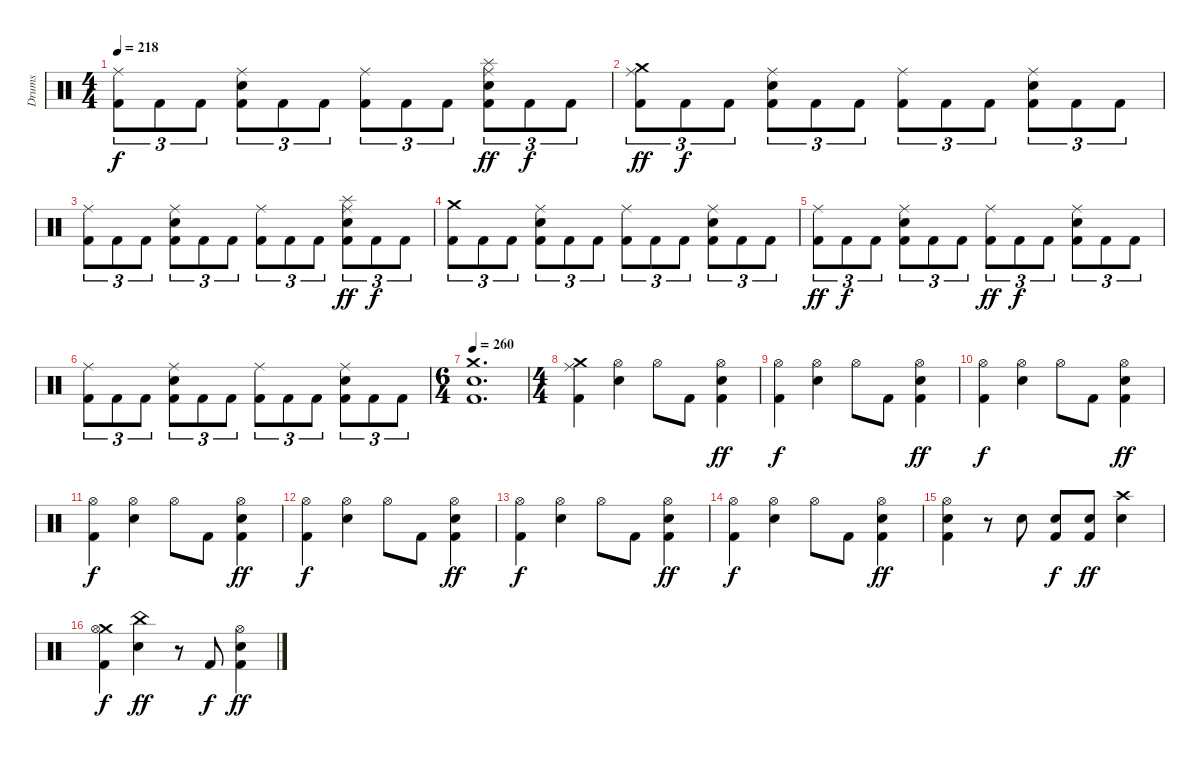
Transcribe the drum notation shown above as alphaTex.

\track ("Drums" "Drums") {instrument percussion}
\staff {score}
\articulation defaults
\ts (4 4)
\tempo 218
\clef neutral
\ks c
("Ride (middle)" "Kick (hit) 2").8{tu (3 2) dy f} "Kick (hit) 2".8{tu (3 2)} "Kick (hit) 2".8{tu (3 2)} ("Ride (middle)" "Electric Snare (hit)" "Kick (hit) 2").8{tu (3 2)} "Kick (hit) 2".8{tu (3 2)} "Kick (hit) 2".8{tu (3 2)} ("Ride (middle)" "Kick (hit) 2").8{tu (3 2)} "Kick (hit) 2".8{tu (3 2)} "Kick (hit) 2".8{tu (3 2)} ("Splash (hit)" "Ride (middle)" "Electric Snare (hit)" "Kick (hit) 2").8{tu (3 2) dy ff} "Kick (hit) 2".8{tu (3 2) dy f} "Kick (hit) 2".8{tu (3 2)} |
("Crash medium (hit)" "Ride (middle)" "Kick (hit) 2").8{tu (3 2) dy ff} "Kick (hit) 2".8{tu (3 2) dy f} "Kick (hit) 2".8{tu (3 2)} ("Ride (middle)" "Electric Snare (hit)" "Kick (hit) 2").8{tu (3 2)} "Kick (hit) 2".8{tu (3 2)} "Kick (hit) 2".8{tu (3 2)} ("Ride (middle)" "Kick (hit) 2").8{tu (3 2)} "Kick (hit) 2".8{tu (3 2)} "Kick (hit) 2".8{tu (3 2)} ("Ride (middle)" "Electric Snare (hit)" "Kick (hit) 2").8{tu (3 2)} "Kick (hit) 2".8{tu (3 2)} "Kick (hit) 2".8{tu (3 2)} |
("Ride (middle)" "Kick (hit) 2").8{tu (3 2)} "Kick (hit) 2".8{tu (3 2)} "Kick (hit) 2".8{tu (3 2)} ("Ride (middle)" "Electric Snare (hit)" "Kick (hit) 2").8{tu (3 2)} "Kick (hit) 2".8{tu (3 2)} "Kick (hit) 2".8{tu (3 2)} ("Ride (middle)" "Kick (hit) 2").8{tu (3 2)} "Kick (hit) 2".8{tu (3 2)} "Kick (hit) 2".8{tu (3 2)} ("Splash (hit)" "Ride (middle)" "Electric Snare (hit)" "Kick (hit) 2").8{tu (3 2) dy ff} "Kick (hit) 2".8{tu (3 2) dy f} "Kick (hit) 2".8{tu (3 2)} |
("Crash medium (hit)" "Kick (hit) 2").8{tu (3 2)} "Kick (hit) 2".8{tu (3 2)} "Kick (hit) 2".8{tu (3 2)} ("Ride (middle)" "Electric Snare (hit)" "Kick (hit) 2").8{tu (3 2)} "Kick (hit) 2".8{tu (3 2)} "Kick (hit) 2".8{tu (3 2)} ("Ride (middle)" "Kick (hit) 2").8{tu (3 2)} "Kick (hit) 2".8{tu (3 2)} "Kick (hit) 2".8{tu (3 2)} ("Ride (middle)" "Electric Snare (hit)" "Kick (hit) 2").8{tu (3 2)} "Kick (hit) 2".8{tu (3 2)} "Kick (hit) 2".8{tu (3 2)} |
("Ride (middle)" "Kick (hit) 2").8{tu (3 2) dy ff} "Kick (hit) 2".8{tu (3 2) dy f} "Kick (hit) 2".8{tu (3 2)} ("Ride (middle)" "Electric Snare (hit)" "Kick (hit) 2").8{tu (3 2)} "Kick (hit) 2".8{tu (3 2)} "Kick (hit) 2".8{tu (3 2)} ("Ride (middle)" "Kick (hit) 2").8{tu (3 2) dy ff} "Kick (hit) 2".8{tu (3 2) dy f} "Kick (hit) 2".8{tu (3 2)} ("Ride (middle)" "Electric Snare (hit)" "Kick (hit) 2").8{tu (3 2)} "Kick (hit) 2".8{tu (3 2)} "Kick (hit) 2".8{tu (3 2)} |
("Ride (middle)" "Kick (hit) 2").8{tu (3 2)} "Kick (hit) 2".8{tu (3 2)} "Kick (hit) 2".8{tu (3 2)} ("Ride (middle)" "Electric Snare (hit)" "Kick (hit) 2").8{tu (3 2)} "Kick (hit) 2".8{tu (3 2)} "Kick (hit) 2".8{tu (3 2)} ("Ride (middle)" "Kick (hit) 2").8{tu (3 2)} "Kick (hit) 2".8{tu (3 2)} "Kick (hit) 2".8{tu (3 2)} ("Ride (middle)" "Electric Snare (hit)" "Kick (hit) 2").8{tu (3 2)} "Kick (hit) 2".8{tu (3 2)} "Kick (hit) 2".8{tu (3 2)} |
\ts (6 4)
\tempo 260
("Crash medium (hit)" "Electric Snare (hit)" "Kick (hit) 2").1{d} |
\ts (4 4)
("Crash medium (hit)" "Ride (middle)" "Kick (hit) 2").4 ("Hi-Hat (open)" "Electric Snare (hit)").4 "Hi-Hat (open)".8 "Kick (hit) 2".8 ("Hi-Hat (open)" "Electric Snare (hit)" "Kick (hit) 2").4{dy ff} |
("Hi-Hat (open)" "Kick (hit) 2").4{dy f} ("Hi-Hat (open)" "Electric Snare (hit)").4 "Hi-Hat (open)".8 "Kick (hit) 2".8 ("Hi-Hat (open)" "Electric Snare (hit)" "Kick (hit) 2").4{dy ff} |
("Hi-Hat (open)" "Kick (hit) 2").4{dy f} ("Hi-Hat (open)" "Electric Snare (hit)").4 "Hi-Hat (open)".8 "Kick (hit) 2".8 ("Hi-Hat (open)" "Electric Snare (hit)" "Kick (hit) 2").4{dy ff} |
("Hi-Hat (open)" "Kick (hit) 2").4{dy f} ("Hi-Hat (open)" "Electric Snare (hit)").4 "Hi-Hat (open)".8 "Kick (hit) 2".8 ("Hi-Hat (open)" "Electric Snare (hit)" "Kick (hit) 2").4{dy ff} |
("Hi-Hat (open)" "Kick (hit) 2").4{dy f} ("Hi-Hat (open)" "Electric Snare (hit)").4 "Hi-Hat (open)".8 "Kick (hit) 2".8 ("Hi-Hat (open)" "Electric Snare (hit)" "Kick (hit) 2").4{dy ff} |
("Hi-Hat (open)" "Kick (hit) 2").4{dy f} ("Hi-Hat (open)" "Electric Snare (hit)").4 "Hi-Hat (open)".8 "Kick (hit) 2".8 ("Hi-Hat (open)" "Electric Snare (hit)" "Kick (hit) 2").4{dy ff} |
("Hi-Hat (open)" "Kick (hit) 2").4{dy f} ("Hi-Hat (open)" "Electric Snare (hit)").4 "Hi-Hat (open)".8 "Kick (hit) 2".8 ("Hi-Hat (open)" "Electric Snare (hit)" "Kick (hit) 2").4{dy ff} |
("Electric Snare (hit)" "Hi-Hat (open)" "Kick (hit) 2").4 r.8 "Electric Snare (hit)".8 ("Electric Snare (hit)" "Kick (hit) 2").8{dy f} ("Electric Snare (hit)" "Kick (hit) 2").8{dy ff} ("Crash high (hit)" "Electric Snare (hit)").4 |
("Crash medium (hit)" "Hi-Hat (open)" "Kick (hit) 2").4{dy f} ("China (hit)" "Electric Snare (hit)").4{dy ff} r.8 "Kick (hit) 2".8{dy f} ("Hi-Hat (open)" "Electric Snare (hit)" "Kick (hit) 2").4{dy ff}
